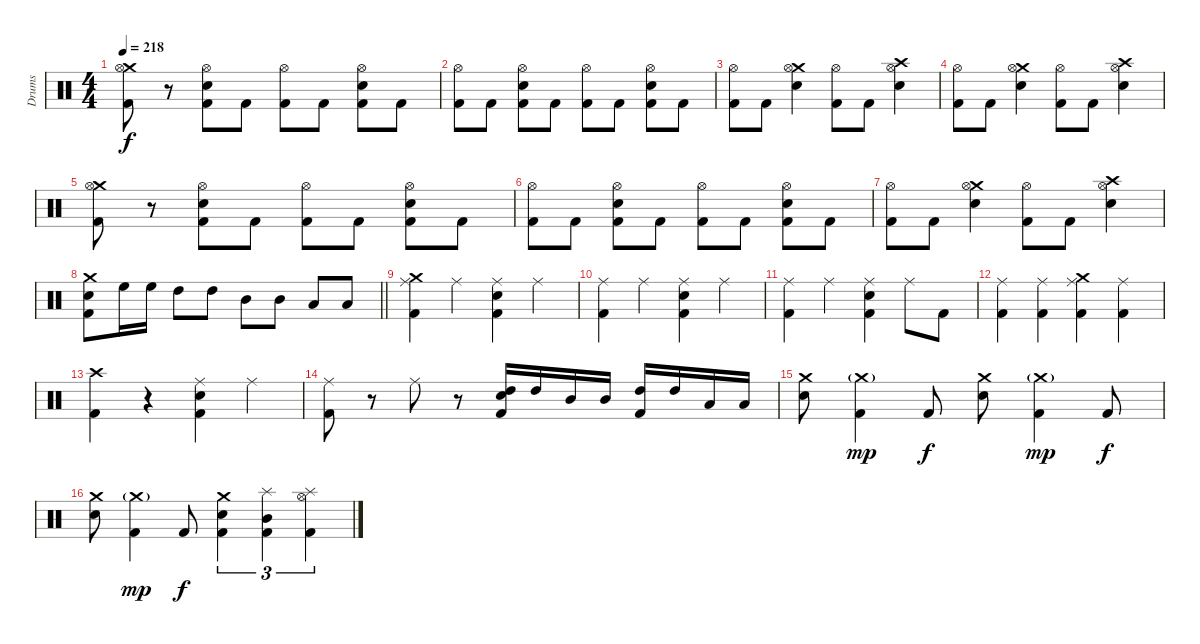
\track ("Drums" "Drums") {instrument percussion}
\staff {score}
\articulation defaults
\ts (4 4)
\tempo 218
\clef neutral
\ks c
("Crash medium (hit)" "Hi-Hat (open)" "Kick (hit) 2").8{dy f} r.8 ("Hi-Hat (open)" "Electric Snare (hit)" "Kick (hit) 2").8 "Kick (hit) 2".8 ("Hi-Hat (open)" "Kick (hit) 2").8 "Kick (hit) 2".8 ("Hi-Hat (open)" "Electric Snare (hit)" "Kick (hit) 2").8 "Kick (hit) 2".8 |
("Hi-Hat (open)" "Kick (hit) 2").8 "Kick (hit) 2".8 ("Hi-Hat (open)" "Electric Snare (hit)" "Kick (hit) 2").8 "Kick (hit) 2".8 ("Hi-Hat (open)" "Kick (hit) 2").8 "Kick (hit) 2".8 ("Hi-Hat (open)" "Electric Snare (hit)" "Kick (hit) 2").8 "Kick (hit) 2".8 |
("Hi-Hat (open)" "Kick (hit) 2").8 "Kick (hit) 2".8 ("Crash medium (hit)" "Hi-Hat (open)" "Electric Snare (hit)").4 ("Hi-Hat (open)" "Kick (hit) 2").8 "Kick (hit) 2".8 ("Crash high (hit)" "Hi-Hat (open)" "Electric Snare (hit)").4 |
("Hi-Hat (open)" "Kick (hit) 2").8 "Kick (hit) 2".8 ("Crash medium (hit)" "Hi-Hat (open)" "Electric Snare (hit)").4 ("Hi-Hat (open)" "Kick (hit) 2").8 "Kick (hit) 2".8 ("Crash high (hit)" "Hi-Hat (open)" "Electric Snare (hit)").4 |
("Crash medium (hit)" "Hi-Hat (open)" "Kick (hit) 2").8 r.8 ("Hi-Hat (open)" "Electric Snare (hit)" "Kick (hit) 2").8 "Kick (hit) 2".8 ("Hi-Hat (open)" "Kick (hit) 2").8 "Kick (hit) 2".8 ("Hi-Hat (open)" "Electric Snare (hit)" "Kick (hit) 2").8 "Kick (hit) 2".8 |
("Hi-Hat (open)" "Kick (hit) 2").8 "Kick (hit) 2".8 ("Hi-Hat (open)" "Electric Snare (hit)" "Kick (hit) 2").8 "Kick (hit) 2".8 ("Hi-Hat (open)" "Kick (hit) 2").8 "Kick (hit) 2".8 ("Hi-Hat (open)" "Electric Snare (hit)" "Kick (hit) 2").8 "Kick (hit) 2".8 |
("Hi-Hat (open)" "Kick (hit) 2").8 "Kick (hit) 2".8 ("Crash medium (hit)" "Hi-Hat (open)" "Electric Snare (hit)").4 ("Hi-Hat (open)" "Kick (hit) 2").8 "Kick (hit) 2".8 ("Crash high (hit)" "Hi-Hat (open)" "Electric Snare (hit)").4 |
\barLineRight lightlight
("Crash medium (hit)" "Electric Snare (hit)" "Kick (hit) 2").8 "High Floor Tom (hit)".16 "High Floor Tom (hit)".16 "High Tom (hit)".8 "High Tom (hit)".8 "Mid Tom (hit)".8 "Mid Tom (hit)".8 "Low Tom (hit)".8 "Low Tom (hit)".8 |
("Crash medium (hit)" "Ride (middle)" "Kick (hit) 2").4 "Ride (middle)".4 ("Ride (middle)" "Electric Snare (hit)" "Kick (hit) 2").4 "Ride (middle)".4 |
("Ride (middle)" "Kick (hit) 2").4 "Ride (middle)".4 ("Ride (middle)" "Electric Snare (hit)" "Kick (hit) 2").4 "Ride (middle)".4 |
("Ride (middle)" "Kick (hit) 2").4 "Ride (middle)".4 ("Ride (middle)" "Electric Snare (hit)" "Kick (hit) 2").4 "Ride (middle)".8 "Kick (hit) 2".8 |
("Ride (middle)" "Kick (hit) 2").4 ("Ride (middle)" "Kick (hit) 2").4 ("Ride (middle)" "Crash medium (hit)" "Kick (hit) 2").4 ("Ride (middle)" "Kick (hit) 2").4 |
("Crash high (hit)" "Kick (hit) 2").4 r.4 ("Ride (middle)" "Electric Snare (hit)" "Kick (hit) 2").4 "Ride (middle)".4 |
("Ride (middle)" "Kick (hit) 2").8 r.8 "Ride (middle)".8 r.8 ("High Tom (hit)" "Electric Snare (hit)" "Kick (hit) 2").16 "High Tom (hit)".16 "Mid Tom (hit)".16 "Mid Tom (hit)".16 ("High Tom (hit)" "Kick (hit) 2").16 "High Tom (hit)".16 "Low Tom (hit)".16 "Low Tom (hit)".16 |
("Crash medium (hit)" "Electric Snare (hit)").8 ("Crash medium (hit)"{g} "Kick (hit) 2").4{dy mp} "Kick (hit) 2".8{dy f} ("Crash medium (hit)" "Electric Snare (hit)").8 ("Crash medium (hit)"{g} "Kick (hit) 2").4{dy mp} "Kick (hit) 2".8{dy f} |
("Crash medium (hit)" "Electric Snare (hit)").8 ("Crash medium (hit)"{g} "Kick (hit) 2").4{dy mp} "Kick (hit) 2".8{dy f} ("Crash medium (hit)" "Electric Snare (hit)" "Kick (hit) 2").4{tu (3 2)} ("Splash (hit)" "Mid Tom (hit)" "Kick (hit) 2").4{tu (3 2)} ("Splash (hit)" "Hi-Hat (open)" "Kick (hit) 2").4{tu (3 2)}
